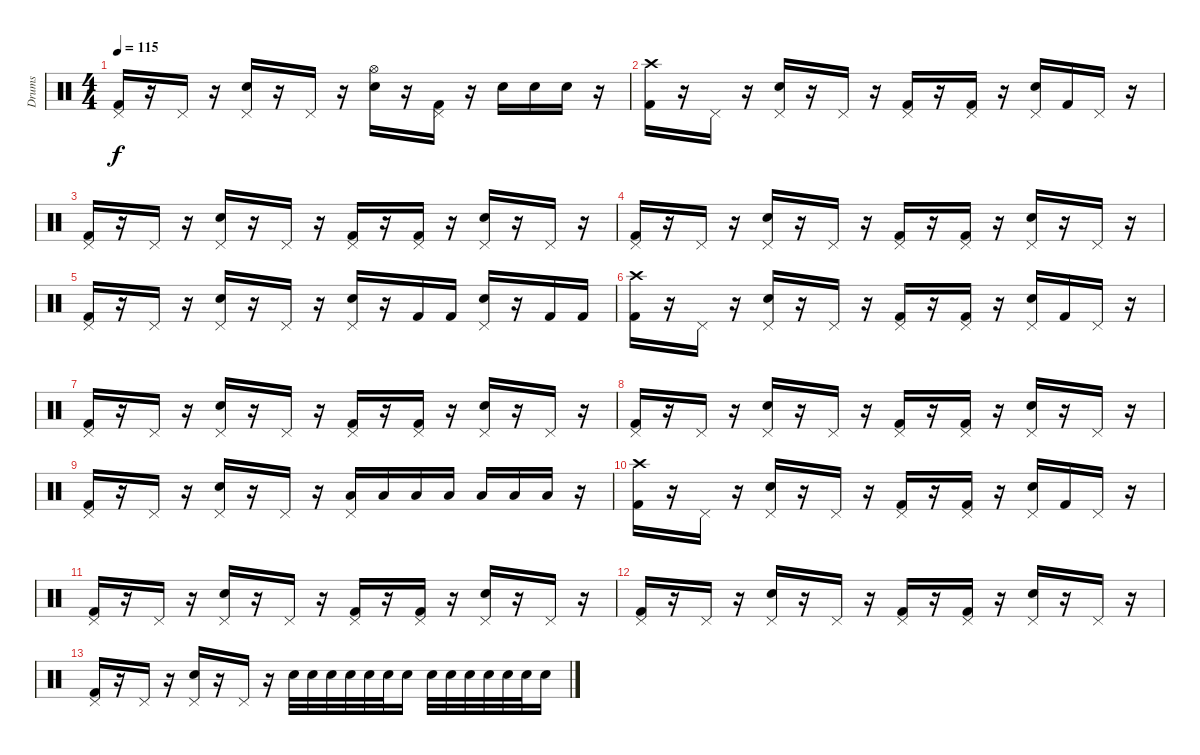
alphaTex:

\track ("Drums" "Drums") {instrument percussion}
\staff {score}
\articulation defaults
\ts (4 4)
\tempo 115
\clef neutral
\ks c
("Pedal Hi-Hat (hit)" "Kick (hit) 2").16{dy f} r.16 "Pedal Hi-Hat (hit)".16 r.16 ("Pedal Hi-Hat (hit)" "Snare (hit) 2").16 r.16 "Pedal Hi-Hat (hit)".16 r.16 ("Hi-Hat (open)" "Snare (hit) 2").16 r.16 ("Pedal Hi-Hat (hit)" "Kick (hit) 2").16 r.16 "Snare (hit) 2".16 "Snare (hit) 2".16 "Snare (hit) 2".16 r.16 |
("Crash high (hit)" "Kick (hit) 2").16 r.16 "Pedal Hi-Hat (hit)".16 r.16 ("Pedal Hi-Hat (hit)" "Snare (hit) 2").16 r.16 "Pedal Hi-Hat (hit)".16 r.16 ("Pedal Hi-Hat (hit)" "Kick (hit) 2").16 r.16 ("Pedal Hi-Hat (hit)" "Kick (hit) 2").16 r.16 ("Pedal Hi-Hat (hit)" "Snare (hit) 2").16 "Kick (hit) 2".16 "Pedal Hi-Hat (hit)".16 r.16 |
("Pedal Hi-Hat (hit)" "Kick (hit) 2").16 r.16 "Pedal Hi-Hat (hit)".16 r.16 ("Pedal Hi-Hat (hit)" "Snare (hit) 2").16 r.16 "Pedal Hi-Hat (hit)".16 r.16 ("Pedal Hi-Hat (hit)" "Kick (hit) 2").16 r.16 ("Pedal Hi-Hat (hit)" "Kick (hit) 2").16 r.16 ("Pedal Hi-Hat (hit)" "Snare (hit) 2").16 r.16 "Pedal Hi-Hat (hit)".16 r.16 |
("Pedal Hi-Hat (hit)" "Kick (hit) 2").16 r.16 "Pedal Hi-Hat (hit)".16 r.16 ("Pedal Hi-Hat (hit)" "Snare (hit) 2").16 r.16 "Pedal Hi-Hat (hit)".16 r.16 ("Pedal Hi-Hat (hit)" "Kick (hit) 2").16 r.16 ("Pedal Hi-Hat (hit)" "Kick (hit) 2").16 r.16 ("Pedal Hi-Hat (hit)" "Snare (hit) 2").16 r.16 "Pedal Hi-Hat (hit)".16 r.16 |
("Pedal Hi-Hat (hit)" "Kick (hit) 2").16 r.16 "Pedal Hi-Hat (hit)".16 r.16 ("Pedal Hi-Hat (hit)" "Snare (hit) 2").16 r.16 "Pedal Hi-Hat (hit)".16 r.16 ("Pedal Hi-Hat (hit)" "Snare (hit) 2").16 r.16 "Kick (hit) 2".16 "Kick (hit) 2".16 ("Pedal Hi-Hat (hit)" "Snare (hit) 2").16 r.16 "Kick (hit) 2".16 "Kick (hit) 2".16 |
("Crash high (hit)" "Kick (hit) 2").16 r.16 "Pedal Hi-Hat (hit)".16 r.16 ("Pedal Hi-Hat (hit)" "Snare (hit) 2").16 r.16 "Pedal Hi-Hat (hit)".16 r.16 ("Pedal Hi-Hat (hit)" "Kick (hit) 2").16 r.16 ("Pedal Hi-Hat (hit)" "Kick (hit) 2").16 r.16 ("Pedal Hi-Hat (hit)" "Snare (hit) 2").16 "Kick (hit) 2".16 "Pedal Hi-Hat (hit)".16 r.16 |
("Pedal Hi-Hat (hit)" "Kick (hit) 2").16 r.16 "Pedal Hi-Hat (hit)".16 r.16 ("Pedal Hi-Hat (hit)" "Snare (hit) 2").16 r.16 "Pedal Hi-Hat (hit)".16 r.16 ("Pedal Hi-Hat (hit)" "Kick (hit) 2").16 r.16 ("Pedal Hi-Hat (hit)" "Kick (hit) 2").16 r.16 ("Pedal Hi-Hat (hit)" "Snare (hit) 2").16 r.16 "Pedal Hi-Hat (hit)".16 r.16 |
("Pedal Hi-Hat (hit)" "Kick (hit) 2").16 r.16 "Pedal Hi-Hat (hit)".16 r.16 ("Pedal Hi-Hat (hit)" "Snare (hit) 2").16 r.16 "Pedal Hi-Hat (hit)".16 r.16 ("Pedal Hi-Hat (hit)" "Kick (hit) 2").16 r.16 ("Pedal Hi-Hat (hit)" "Kick (hit) 2").16 r.16 ("Pedal Hi-Hat (hit)" "Snare (hit) 2").16 r.16 "Pedal Hi-Hat (hit)".16 r.16 |
("Pedal Hi-Hat (hit)" "Kick (hit) 2").16 r.16 "Pedal Hi-Hat (hit)".16 r.16 ("Pedal Hi-Hat (hit)" "Snare (hit) 2").16 r.16 "Pedal Hi-Hat (hit)".16 r.16 ("Pedal Hi-Hat (hit)" "Low Tom (hit)").16 "Low Tom (hit)".16 "Low Tom (hit)".16 "Low Tom (hit)".16 "Low Tom (hit)".16 "Low Tom (hit)".16 "Low Tom (hit)".16 r.16 |
("Crash high (hit)" "Kick (hit) 2").16 r.16 "Pedal Hi-Hat (hit)".16 r.16 ("Pedal Hi-Hat (hit)" "Snare (hit) 2").16 r.16 "Pedal Hi-Hat (hit)".16 r.16 ("Pedal Hi-Hat (hit)" "Kick (hit) 2").16 r.16 ("Pedal Hi-Hat (hit)" "Kick (hit) 2").16 r.16 ("Pedal Hi-Hat (hit)" "Snare (hit) 2").16 "Kick (hit) 2".16 "Pedal Hi-Hat (hit)".16 r.16 |
("Pedal Hi-Hat (hit)" "Kick (hit) 2").16 r.16 "Pedal Hi-Hat (hit)".16 r.16 ("Pedal Hi-Hat (hit)" "Snare (hit) 2").16 r.16 "Pedal Hi-Hat (hit)".16 r.16 ("Pedal Hi-Hat (hit)" "Kick (hit) 2").16 r.16 ("Pedal Hi-Hat (hit)" "Kick (hit) 2").16 r.16 ("Pedal Hi-Hat (hit)" "Snare (hit) 2").16 r.16 "Pedal Hi-Hat (hit)".16 r.16 |
("Pedal Hi-Hat (hit)" "Kick (hit) 2").16 r.16 "Pedal Hi-Hat (hit)".16 r.16 ("Pedal Hi-Hat (hit)" "Snare (hit) 2").16 r.16 "Pedal Hi-Hat (hit)".16 r.16 ("Pedal Hi-Hat (hit)" "Kick (hit) 2").16 r.16 ("Pedal Hi-Hat (hit)" "Kick (hit) 2").16 r.16 ("Pedal Hi-Hat (hit)" "Snare (hit) 2").16 r.16 "Pedal Hi-Hat (hit)".16 r.16 |
("Pedal Hi-Hat (hit)" "Kick (hit) 2").16 r.16 "Pedal Hi-Hat (hit)".16 r.16 ("Pedal Hi-Hat (hit)" "Snare (hit) 2").16 r.16 "Pedal Hi-Hat (hit)".16 r.16 "Snare (hit) 2".32 "Snare (hit) 2".32 "Snare (hit) 2".32 "Snare (hit) 2".32 "Snare (hit) 2".32 "Snare (hit) 2".32 "Snare (hit) 2".16 "Snare (hit) 2".32 "Snare (hit) 2".32 "Snare (hit) 2".32 "Snare (hit) 2".32 "Snare (hit) 2".32 "Snare (hit) 2".32 "Snare (hit) 2".16
